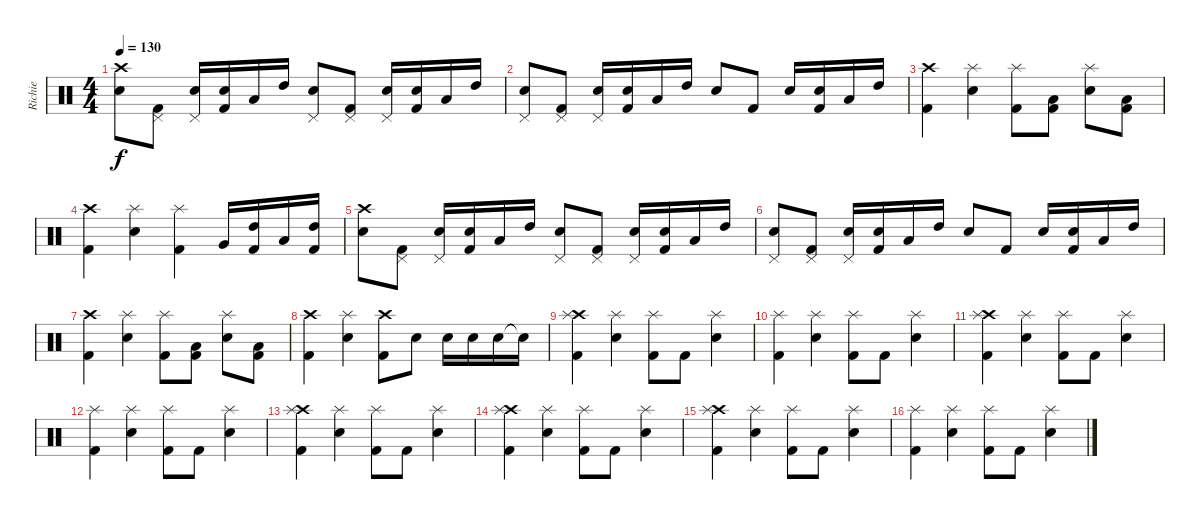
\track ("Richie" "Richie") {instrument percussion}
\staff {score}
\articulation defaults
\ts (4 4)
\tempo 130
\clef neutral
\ks c
("Crash high (hit)" "Snare (hit) 2").8{dy f} ("Pedal Hi-Hat (hit)" "Kick (hit) 2").8 ("Pedal Hi-Hat (hit)" "Electric Snare (hit)").16 ("Electric Snare (hit)" "Kick (hit) 2").16 "Low Tom (hit)".16 "High Tom (hit)".16 ("Pedal Hi-Hat (hit)" "Snare (hit) 2").8 ("Pedal Hi-Hat (hit)" "Kick (hit) 2").8 ("Pedal Hi-Hat (hit)" "Electric Snare (hit)").16 ("Electric Snare (hit)" "Kick (hit) 2").16 "Low Tom (hit)".16 "High Tom (hit)".16 |
("Pedal Hi-Hat (hit)" "Snare (hit) 2").8 ("Pedal Hi-Hat (hit)" "Kick (hit) 2").8 ("Pedal Hi-Hat (hit)" "Electric Snare (hit)").16 ("Electric Snare (hit)" "Kick (hit) 2").16 "Low Tom (hit)".16 "High Tom (hit)".16 "Snare (hit) 2".8 "Kick (hit) 2".8 "Electric Snare (hit)".16 ("Electric Snare (hit)" "Kick (hit) 2").16 "Low Tom (hit)".16 "High Tom (hit)".16 |
("Crash high (hit)" "Kick (hit) 2").4 ("Splash (hit)" "Electric Snare (hit)").4 ("Splash (hit)" "Kick (hit) 2").8 ("Low Tom (hit)" "Kick (hit) 2").8 ("Splash (hit)" "Electric Snare (hit)").8 ("Low Tom (hit)" "Kick (hit) 2").8 |
("Crash high (hit)" "Kick (hit) 2").4 ("Splash (hit)" "Electric Snare (hit)").4 ("Splash (hit)" "Kick (hit) 2").4 "Very Low Tom (hit)".16 ("High Tom (hit)" "Kick (hit) 2").16 "Low Tom (hit)".16 ("High Tom (hit)" "Kick (hit) 2").16 |
("Crash high (hit)" "Snare (hit) 2").8 ("Pedal Hi-Hat (hit)" "Kick (hit) 2").8 ("Pedal Hi-Hat (hit)" "Electric Snare (hit)").16 ("Electric Snare (hit)" "Kick (hit) 2").16 "Low Tom (hit)".16 "High Tom (hit)".16 ("Pedal Hi-Hat (hit)" "Snare (hit) 2").8 ("Pedal Hi-Hat (hit)" "Kick (hit) 2").8 ("Pedal Hi-Hat (hit)" "Electric Snare (hit)").16 ("Electric Snare (hit)" "Kick (hit) 2").16 "Low Tom (hit)".16 "High Tom (hit)".16 |
("Pedal Hi-Hat (hit)" "Snare (hit) 2").8 ("Pedal Hi-Hat (hit)" "Kick (hit) 2").8 ("Pedal Hi-Hat (hit)" "Electric Snare (hit)").16 ("Electric Snare (hit)" "Kick (hit) 2").16 "Low Tom (hit)".16 "High Tom (hit)".16 "Snare (hit) 2".8 "Kick (hit) 2".8 "Electric Snare (hit)".16 ("Electric Snare (hit)" "Kick (hit) 2").16 "Low Tom (hit)".16 "High Tom (hit)".16 |
("Crash high (hit)" "Kick (hit) 2").4 ("Splash (hit)" "Electric Snare (hit)").4 ("Splash (hit)" "Kick (hit) 2").8 ("Low Tom (hit)" "Kick (hit) 2").8 ("Splash (hit)" "Electric Snare (hit)").8 ("Low Tom (hit)" "Kick (hit) 2").8 |
("Crash high (hit)" "Kick (hit) 2").4 ("Splash (hit)" "Electric Snare (hit)").4 ("Crash high (hit)" "Kick (hit) 2").8 "Snare (hit) 2".8 "Snare (hit) 2".16 "Snare (hit) 2".16 "Snare (hit) 2".16 "Electric Snare (hit)"{t}.16 |
("Crash high (hit)" "Splash (hit)" "Kick (hit) 2").4 ("Splash (hit)" "Snare (hit) 2").4 ("Splash (hit)" "Kick (hit) 2").8 "Kick (hit) 2".8 ("Splash (hit)" "Snare (hit) 2").4 |
("Splash (hit)" "Kick (hit) 2").4 ("Splash (hit)" "Snare (hit) 2").4 ("Splash (hit)" "Kick (hit) 2").8 "Kick (hit) 2".8 ("Splash (hit)" "Snare (hit) 2").4 |
("Crash high (hit)" "Splash (hit)" "Kick (hit) 2").4 ("Splash (hit)" "Snare (hit) 2").4 ("Splash (hit)" "Kick (hit) 2").8 "Kick (hit) 2".8 ("Splash (hit)" "Snare (hit) 2").4 |
("Splash (hit)" "Kick (hit) 2").4 ("Splash (hit)" "Snare (hit) 2").4 ("Splash (hit)" "Kick (hit) 2").8 "Kick (hit) 2".8 ("Splash (hit)" "Snare (hit) 2").4 |
("Crash high (hit)" "Splash (hit)" "Kick (hit) 2").4 ("Splash (hit)" "Snare (hit) 2").4 ("Splash (hit)" "Kick (hit) 2").8 "Kick (hit) 2".8 ("Splash (hit)" "Snare (hit) 2").4 |
("Crash high (hit)" "Splash (hit)" "Kick (hit) 2").4 ("Splash (hit)" "Snare (hit) 2").4 ("Splash (hit)" "Kick (hit) 2").8 "Kick (hit) 2".8 ("Splash (hit)" "Snare (hit) 2").4 |
("Crash high (hit)" "Splash (hit)" "Kick (hit) 2").4 ("Splash (hit)" "Snare (hit) 2").4 ("Splash (hit)" "Kick (hit) 2").8 "Kick (hit) 2".8 ("Splash (hit)" "Snare (hit) 2").4 |
("Splash (hit)" "Kick (hit) 2").4 ("Splash (hit)" "Snare (hit) 2").4 ("Splash (hit)" "Kick (hit) 2").8 "Kick (hit) 2".8 ("Splash (hit)" "Snare (hit) 2").4
